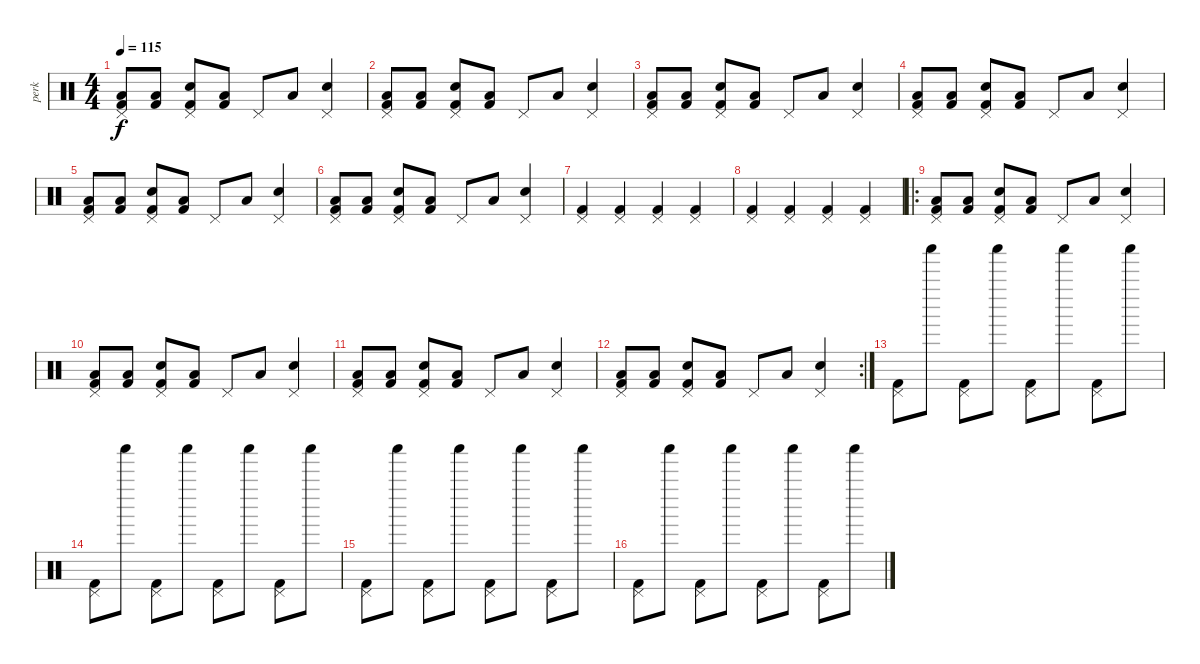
\track ("perk" "perk") {instrument percussion}
\staff {score}
\articulation defaults
\ts (4 4)
\tempo 115
\clef neutral
\ks c
("Pedal Hi-Hat (hit)" "Low Floor Tom (hit)" "Kick (hit) 2").8{dy f} ("Low Floor Tom (hit)" "Kick (hit) 2").8 ("Pedal Hi-Hat (hit)" "Snare (hit) 2" "Kick (hit) 2").8 ("Low Floor Tom (hit)" "Kick (hit) 2").8 "Pedal Hi-Hat (hit)".8 "Low Floor Tom (hit)".8 ("Pedal Hi-Hat (hit)" "Snare (hit) 2").4 |
("Pedal Hi-Hat (hit)" "Low Floor Tom (hit)" "Kick (hit) 2").8 ("Low Floor Tom (hit)" "Kick (hit) 2").8 ("Pedal Hi-Hat (hit)" "Snare (hit) 2" "Kick (hit) 2").8 ("Low Floor Tom (hit)" "Kick (hit) 2").8 "Pedal Hi-Hat (hit)".8 "Low Floor Tom (hit)".8 ("Pedal Hi-Hat (hit)" "Snare (hit) 2").4 |
("Pedal Hi-Hat (hit)" "Low Floor Tom (hit)" "Kick (hit) 2").8 ("Low Floor Tom (hit)" "Kick (hit) 2").8 ("Pedal Hi-Hat (hit)" "Snare (hit) 2" "Kick (hit) 2").8 ("Low Floor Tom (hit)" "Kick (hit) 2").8 "Pedal Hi-Hat (hit)".8 "Low Floor Tom (hit)".8 ("Pedal Hi-Hat (hit)" "Snare (hit) 2").4 |
("Pedal Hi-Hat (hit)" "Low Floor Tom (hit)" "Kick (hit) 2").8 ("Low Floor Tom (hit)" "Kick (hit) 2").8 ("Pedal Hi-Hat (hit)" "Snare (hit) 2" "Kick (hit) 2").8 ("Low Floor Tom (hit)" "Kick (hit) 2").8 "Pedal Hi-Hat (hit)".8 "Low Floor Tom (hit)".8 ("Pedal Hi-Hat (hit)" "Snare (hit) 2").4 |
("Pedal Hi-Hat (hit)" "Low Floor Tom (hit)" "Kick (hit) 2").8 ("Low Floor Tom (hit)" "Kick (hit) 2").8 ("Pedal Hi-Hat (hit)" "Snare (hit) 2" "Kick (hit) 2").8 ("Low Floor Tom (hit)" "Kick (hit) 2").8 "Pedal Hi-Hat (hit)".8 "Low Floor Tom (hit)".8 ("Pedal Hi-Hat (hit)" "Snare (hit) 2").4 |
("Pedal Hi-Hat (hit)" "Low Floor Tom (hit)" "Kick (hit) 2").8 ("Low Floor Tom (hit)" "Kick (hit) 2").8 ("Pedal Hi-Hat (hit)" "Snare (hit) 2" "Kick (hit) 2").8 ("Low Floor Tom (hit)" "Kick (hit) 2").8 "Pedal Hi-Hat (hit)".8 "Low Floor Tom (hit)".8 ("Pedal Hi-Hat (hit)" "Snare (hit) 2").4 |
("Pedal Hi-Hat (hit)" "Kick (hit) 2").4 ("Pedal Hi-Hat (hit)" "Kick (hit) 2").4 ("Pedal Hi-Hat (hit)" "Kick (hit) 2").4 ("Pedal Hi-Hat (hit)" "Kick (hit) 2").4 |
("Pedal Hi-Hat (hit)" "Kick (hit) 2").4 ("Pedal Hi-Hat (hit)" "Kick (hit) 2").4 ("Pedal Hi-Hat (hit)" "Kick (hit) 2").4 ("Pedal Hi-Hat (hit)" "Kick (hit) 2").4 |
\ro
("Pedal Hi-Hat (hit)" "Low Floor Tom (hit)" "Kick (hit) 2").8 ("Low Floor Tom (hit)" "Kick (hit) 2").8 ("Pedal Hi-Hat (hit)" "Snare (hit) 2" "Kick (hit) 2").8 ("Low Floor Tom (hit)" "Kick (hit) 2").8 "Pedal Hi-Hat (hit)".8 "Low Floor Tom (hit)".8 ("Pedal Hi-Hat (hit)" "Snare (hit) 2").4 |
("Pedal Hi-Hat (hit)" "Low Floor Tom (hit)" "Kick (hit) 2").8 ("Low Floor Tom (hit)" "Kick (hit) 2").8 ("Pedal Hi-Hat (hit)" "Snare (hit) 2" "Kick (hit) 2").8 ("Low Floor Tom (hit)" "Kick (hit) 2").8 "Pedal Hi-Hat (hit)".8 "Low Floor Tom (hit)".8 ("Pedal Hi-Hat (hit)" "Snare (hit) 2").4 |
("Pedal Hi-Hat (hit)" "Low Floor Tom (hit)" "Kick (hit) 2").8 ("Low Floor Tom (hit)" "Kick (hit) 2").8 ("Pedal Hi-Hat (hit)" "Snare (hit) 2" "Kick (hit) 2").8 ("Low Floor Tom (hit)" "Kick (hit) 2").8 "Pedal Hi-Hat (hit)".8 "Low Floor Tom (hit)".8 ("Pedal Hi-Hat (hit)" "Snare (hit) 2").4 |
\rc 2
("Pedal Hi-Hat (hit)" "Low Floor Tom (hit)" "Kick (hit) 2").8 ("Low Floor Tom (hit)" "Kick (hit) 2").8 ("Pedal Hi-Hat (hit)" "Snare (hit) 2" "Kick (hit) 2").8 ("Low Floor Tom (hit)" "Kick (hit) 2").8 "Pedal Hi-Hat (hit)".8 "Low Floor Tom (hit)".8 ("Pedal Hi-Hat (hit)" "Snare (hit) 2").4 |
("Pedal Hi-Hat (hit)" "Kick (hit) 2").8 "Shaker (hit)".8 ("Pedal Hi-Hat (hit)" "Kick (hit) 2").8 "Shaker (hit)".8 ("Pedal Hi-Hat (hit)" "Kick (hit) 2").8 "Shaker (hit)".8 ("Pedal Hi-Hat (hit)" "Kick (hit) 2").8 "Shaker (hit)".8 |
("Pedal Hi-Hat (hit)" "Kick (hit) 2").8 "Shaker (hit)".8 ("Pedal Hi-Hat (hit)" "Kick (hit) 2").8 "Shaker (hit)".8 ("Pedal Hi-Hat (hit)" "Kick (hit) 2").8 "Shaker (hit)".8 ("Pedal Hi-Hat (hit)" "Kick (hit) 2").8 "Shaker (hit)".8 |
("Pedal Hi-Hat (hit)" "Kick (hit) 2").8 "Shaker (hit)".8 ("Pedal Hi-Hat (hit)" "Kick (hit) 2").8 "Shaker (hit)".8 ("Pedal Hi-Hat (hit)" "Kick (hit) 2").8 "Shaker (hit)".8 ("Pedal Hi-Hat (hit)" "Kick (hit) 2").8 "Shaker (hit)".8 |
("Pedal Hi-Hat (hit)" "Kick (hit) 2").8 "Shaker (hit)".8 ("Pedal Hi-Hat (hit)" "Kick (hit) 2").8 "Shaker (hit)".8 ("Pedal Hi-Hat (hit)" "Kick (hit) 2").8 "Shaker (hit)".8 ("Pedal Hi-Hat (hit)" "Kick (hit) 2").8 "Shaker (hit)".8
